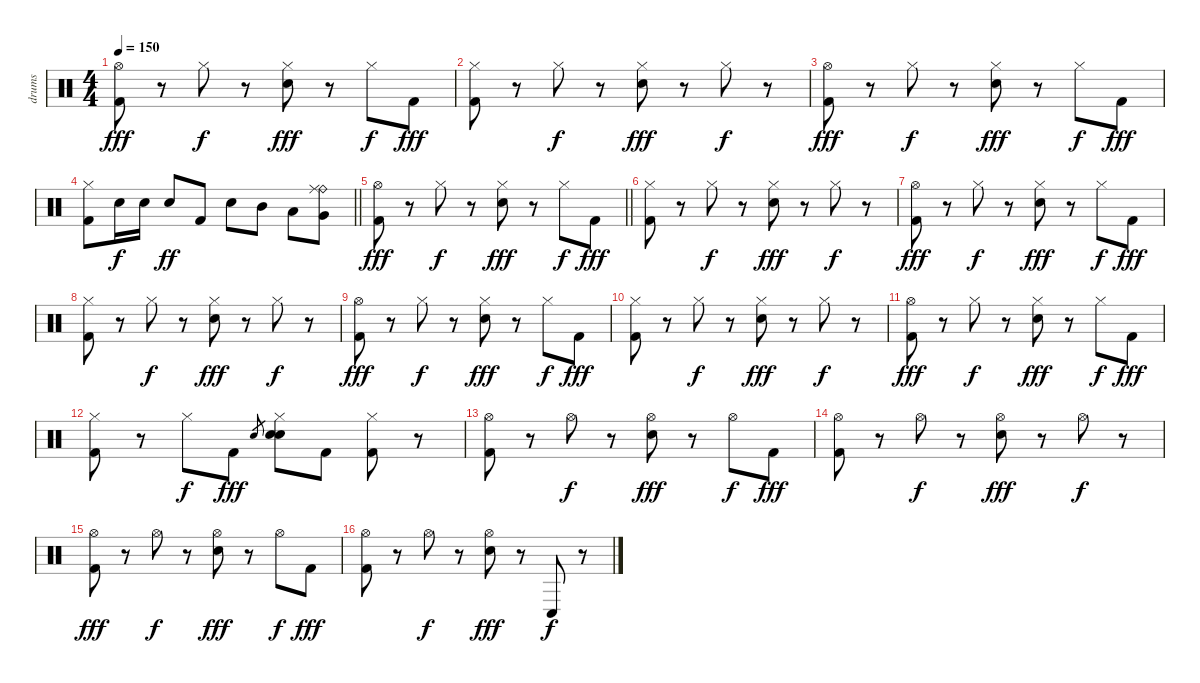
\track ("drums" "drums") {instrument percussion}
\staff {score}
\articulation defaults
\ts (4 4)
\tempo 150
\clef neutral
\ks c
("Hi-Hat (open)" "Kick (hit) 2").8{dy fff} r.8 "Hi-Hat (closed)".8{dy f} r.8 ("Hi-Hat (closed)" "Snare (hit) 2").8{dy fff} r.8 "Hi-Hat (closed)".8{dy f} "Kick (hit) 2".8{dy fff} |
("Hi-Hat (closed)" "Kick (hit) 2").8 r.8 "Hi-Hat (closed)".8{dy f} r.8 ("Hi-Hat (closed)" "Snare (hit) 2").8{dy fff} r.8 "Hi-Hat (closed)".8{dy f} r.8 |
("Hi-Hat (open)" "Kick (hit) 2").8{dy fff} r.8 "Hi-Hat (closed)".8{dy f} r.8 ("Hi-Hat (closed)" "Snare (hit) 2").8{dy fff} r.8 "Hi-Hat (closed)".8{dy f} "Kick (hit) 2".8{dy fff} |
\barLineRight lightlight
("Hi-Hat (closed)" "Kick (hit) 2").8 "Snare (hit) 2".16{dy f} "Snare (hit) 2".16 "Snare (hit) 2".8{dy ff} "Kick (hit) 2".8 "Snare (hit) 2".8 "Mid Tom (hit)".8 "Low Tom (hit)".8 ("Ride (bell)" "Ride (middle)" "Very Low Tom (hit)").8 |
\barLineRight lightlight
("Hi-Hat (open)" "Kick (hit) 2").8{dy fff} r.8 "Hi-Hat (closed)".8{dy f} r.8 ("Hi-Hat (closed)" "Snare (hit) 2").8{dy fff} r.8 "Hi-Hat (closed)".8{dy f} "Kick (hit) 2".8{dy fff} |
("Hi-Hat (closed)" "Kick (hit) 2").8 r.8 "Hi-Hat (closed)".8{dy f} r.8 ("Hi-Hat (closed)" "Snare (hit) 2").8{dy fff} r.8 "Hi-Hat (closed)".8{dy f} r.8 |
("Hi-Hat (open)" "Kick (hit) 2").8{dy fff} r.8 "Hi-Hat (closed)".8{dy f} r.8 ("Hi-Hat (closed)" "Snare (hit) 2").8{dy fff} r.8 "Hi-Hat (closed)".8{dy f} "Kick (hit) 2".8{dy fff} |
("Hi-Hat (closed)" "Kick (hit) 2").8 r.8 "Hi-Hat (closed)".8{dy f} r.8 ("Hi-Hat (closed)" "Snare (hit) 2").8{dy fff} r.8 "Hi-Hat (closed)".8{dy f} r.8 |
("Hi-Hat (open)" "Kick (hit) 2").8{dy fff} r.8 "Hi-Hat (closed)".8{dy f} r.8 ("Hi-Hat (closed)" "Snare (hit) 2").8{dy fff} r.8 "Hi-Hat (closed)".8{dy f} "Kick (hit) 2".8{dy fff} |
("Hi-Hat (closed)" "Kick (hit) 2").8 r.8 "Hi-Hat (closed)".8{dy f} r.8 ("Hi-Hat (closed)" "Snare (hit) 2").8{dy fff} r.8 "Hi-Hat (closed)".8{dy f} r.8 |
("Hi-Hat (open)" "Kick (hit) 2").8{dy fff} r.8 "Hi-Hat (closed)".8{dy f} r.8 ("Hi-Hat (closed)" "Snare (hit) 2").8{dy fff} r.8 "Hi-Hat (closed)".8{dy f} "Kick (hit) 2".8{dy fff} |
("Hi-Hat (closed)" "Kick (hit) 2").8 r.8 "Hi-Hat (closed)".8{dy f} "Kick (hit) 2".8{dy fff} "Snare (hit) 2".8{gr} ("Hi-Hat (closed)" "Snare (hit) 2" "Snare (hit) 2").8 "Kick (hit) 2".8 ("Hi-Hat (closed)" "Kick (hit) 2").8 r.8 |
("Hi-Hat (open)" "Kick (hit) 2").8 r.8 "Hi-Hat (open)".8{dy f} r.8 ("Hi-Hat (open)" "Snare (hit) 2").8{dy fff} r.8 "Hi-Hat (open)".8{dy f} "Kick (hit) 2".8{dy fff} |
("Hi-Hat (open)" "Kick (hit) 2").8 r.8 "Hi-Hat (open)".8{dy f} r.8 ("Hi-Hat (open)" "Snare (hit) 2").8{dy fff} r.8 "Hi-Hat (open)".8{dy f} r.8 |
("Hi-Hat (open)" "Kick (hit) 2").8{dy fff} r.8 "Hi-Hat (open)".8{dy f} r.8 ("Hi-Hat (open)" "Snare (hit) 2").8{dy fff} r.8 "Hi-Hat (open)".8{dy f} "Kick (hit) 2".8{dy fff} |
("Hi-Hat (open)" "Kick (hit) 2").8 r.8 "Hi-Hat (open)".8{dy f} r.8 ("Hi-Hat (open)" "Snare (hit) 2").8{dy fff} r.8 "Conga low (hit)".8{dy f} r.8
